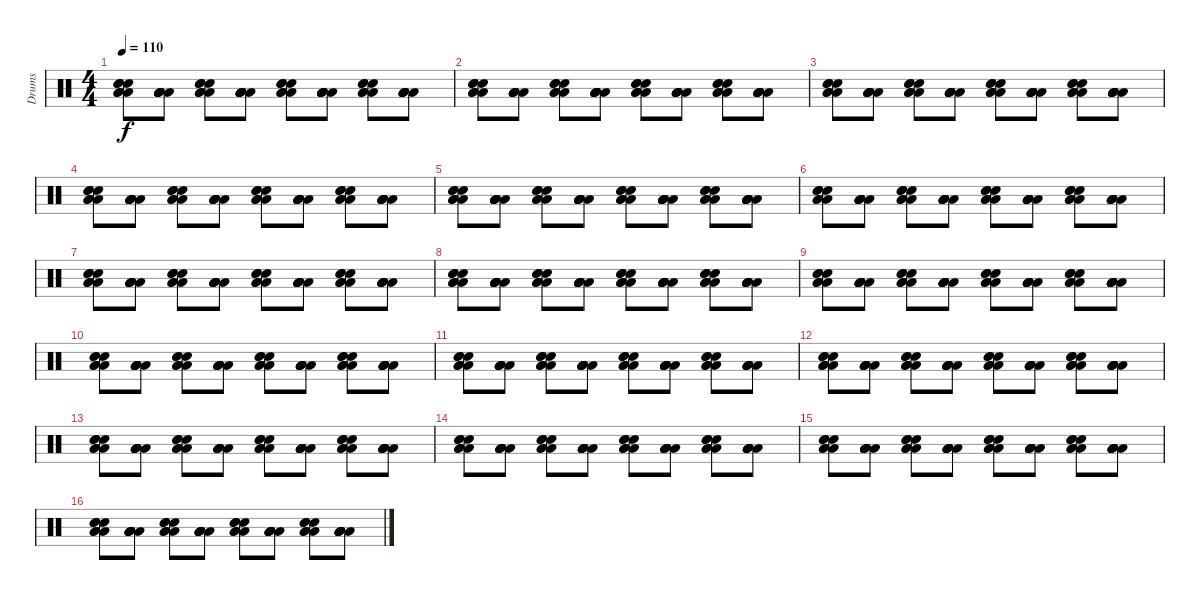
\track ("Drums" "Drums") {instrument percussion}
\staff {score}
\articulation defaults
\ts (4 4)
\tempo 110
\clef neutral
\ks c
("Electric Snare (hit)" "Electric Snare (hit)" "Electric Snare (hit)" "Low Floor Tom (hit)" "Low Floor Tom (hit)" "Low Floor Tom (hit)").8{dy f} ("Low Floor Tom (hit)" "Low Floor Tom (hit)" "Low Floor Tom (hit)" "Low Floor Tom (hit)" "Low Floor Tom (hit)" "Low Floor Tom (hit)").8 ("Electric Snare (hit)" "Electric Snare (hit)" "Electric Snare (hit)" "Low Floor Tom (hit)" "Low Floor Tom (hit)" "Low Floor Tom (hit)").8 ("Low Floor Tom (hit)" "Low Floor Tom (hit)" "Low Floor Tom (hit)" "Low Floor Tom (hit)" "Low Floor Tom (hit)" "Low Floor Tom (hit)").8 ("Electric Snare (hit)" "Electric Snare (hit)" "Electric Snare (hit)" "Low Floor Tom (hit)" "Low Floor Tom (hit)" "Low Floor Tom (hit)").8 ("Low Floor Tom (hit)" "Low Floor Tom (hit)" "Low Floor Tom (hit)" "Low Floor Tom (hit)" "Low Floor Tom (hit)" "Low Floor Tom (hit)").8 ("Electric Snare (hit)" "Electric Snare (hit)" "Electric Snare (hit)" "Low Floor Tom (hit)" "Low Floor Tom (hit)" "Low Floor Tom (hit)").8 ("Low Floor Tom (hit)" "Low Floor Tom (hit)" "Low Floor Tom (hit)" "Low Floor Tom (hit)" "Low Floor Tom (hit)" "Low Floor Tom (hit)").8 |
("Electric Snare (hit)" "Electric Snare (hit)" "Electric Snare (hit)" "Low Floor Tom (hit)" "Low Floor Tom (hit)" "Low Floor Tom (hit)").8 ("Low Floor Tom (hit)" "Low Floor Tom (hit)" "Low Floor Tom (hit)" "Low Floor Tom (hit)" "Low Floor Tom (hit)" "Low Floor Tom (hit)").8 ("Electric Snare (hit)" "Electric Snare (hit)" "Electric Snare (hit)" "Low Floor Tom (hit)" "Low Floor Tom (hit)" "Low Floor Tom (hit)").8 ("Low Floor Tom (hit)" "Low Floor Tom (hit)" "Low Floor Tom (hit)" "Low Floor Tom (hit)" "Low Floor Tom (hit)" "Low Floor Tom (hit)").8 ("Electric Snare (hit)" "Electric Snare (hit)" "Electric Snare (hit)" "Low Floor Tom (hit)" "Low Floor Tom (hit)" "Low Floor Tom (hit)").8 ("Low Floor Tom (hit)" "Low Floor Tom (hit)" "Low Floor Tom (hit)" "Low Floor Tom (hit)" "Low Floor Tom (hit)" "Low Floor Tom (hit)").8 ("Electric Snare (hit)" "Electric Snare (hit)" "Electric Snare (hit)" "Low Floor Tom (hit)" "Low Floor Tom (hit)" "Low Floor Tom (hit)").8 ("Low Floor Tom (hit)" "Low Floor Tom (hit)" "Low Floor Tom (hit)" "Low Floor Tom (hit)" "Low Floor Tom (hit)" "Low Floor Tom (hit)").8 |
("Electric Snare (hit)" "Electric Snare (hit)" "Electric Snare (hit)" "Low Floor Tom (hit)" "Low Floor Tom (hit)" "Low Floor Tom (hit)").8 ("Low Floor Tom (hit)" "Low Floor Tom (hit)" "Low Floor Tom (hit)" "Low Floor Tom (hit)" "Low Floor Tom (hit)" "Low Floor Tom (hit)").8 ("Electric Snare (hit)" "Electric Snare (hit)" "Electric Snare (hit)" "Low Floor Tom (hit)" "Low Floor Tom (hit)" "Low Floor Tom (hit)").8 ("Low Floor Tom (hit)" "Low Floor Tom (hit)" "Low Floor Tom (hit)" "Low Floor Tom (hit)" "Low Floor Tom (hit)" "Low Floor Tom (hit)").8 ("Electric Snare (hit)" "Electric Snare (hit)" "Electric Snare (hit)" "Low Floor Tom (hit)" "Low Floor Tom (hit)" "Low Floor Tom (hit)").8 ("Low Floor Tom (hit)" "Low Floor Tom (hit)" "Low Floor Tom (hit)" "Low Floor Tom (hit)" "Low Floor Tom (hit)" "Low Floor Tom (hit)").8 ("Electric Snare (hit)" "Electric Snare (hit)" "Electric Snare (hit)" "Low Floor Tom (hit)" "Low Floor Tom (hit)" "Low Floor Tom (hit)").8 ("Low Floor Tom (hit)" "Low Floor Tom (hit)" "Low Floor Tom (hit)" "Low Floor Tom (hit)" "Low Floor Tom (hit)" "Low Floor Tom (hit)").8 |
("Electric Snare (hit)" "Electric Snare (hit)" "Electric Snare (hit)" "Low Floor Tom (hit)" "Low Floor Tom (hit)" "Low Floor Tom (hit)").8 ("Low Floor Tom (hit)" "Low Floor Tom (hit)" "Low Floor Tom (hit)" "Low Floor Tom (hit)" "Low Floor Tom (hit)" "Low Floor Tom (hit)").8 ("Electric Snare (hit)" "Electric Snare (hit)" "Electric Snare (hit)" "Low Floor Tom (hit)" "Low Floor Tom (hit)" "Low Floor Tom (hit)").8 ("Low Floor Tom (hit)" "Low Floor Tom (hit)" "Low Floor Tom (hit)" "Low Floor Tom (hit)" "Low Floor Tom (hit)" "Low Floor Tom (hit)").8 ("Electric Snare (hit)" "Electric Snare (hit)" "Electric Snare (hit)" "Low Floor Tom (hit)" "Low Floor Tom (hit)" "Low Floor Tom (hit)").8 ("Low Floor Tom (hit)" "Low Floor Tom (hit)" "Low Floor Tom (hit)" "Low Floor Tom (hit)" "Low Floor Tom (hit)" "Low Floor Tom (hit)").8 ("Electric Snare (hit)" "Electric Snare (hit)" "Electric Snare (hit)" "Low Floor Tom (hit)" "Low Floor Tom (hit)" "Low Floor Tom (hit)").8 ("Low Floor Tom (hit)" "Low Floor Tom (hit)" "Low Floor Tom (hit)" "Low Floor Tom (hit)" "Low Floor Tom (hit)" "Low Floor Tom (hit)").8 |
("Electric Snare (hit)" "Electric Snare (hit)" "Electric Snare (hit)" "Low Floor Tom (hit)" "Low Floor Tom (hit)" "Low Floor Tom (hit)").8 ("Low Floor Tom (hit)" "Low Floor Tom (hit)" "Low Floor Tom (hit)" "Low Floor Tom (hit)" "Low Floor Tom (hit)" "Low Floor Tom (hit)").8 ("Electric Snare (hit)" "Electric Snare (hit)" "Electric Snare (hit)" "Low Floor Tom (hit)" "Low Floor Tom (hit)" "Low Floor Tom (hit)").8 ("Low Floor Tom (hit)" "Low Floor Tom (hit)" "Low Floor Tom (hit)" "Low Floor Tom (hit)" "Low Floor Tom (hit)" "Low Floor Tom (hit)").8 ("Electric Snare (hit)" "Electric Snare (hit)" "Electric Snare (hit)" "Low Floor Tom (hit)" "Low Floor Tom (hit)" "Low Floor Tom (hit)").8 ("Low Floor Tom (hit)" "Low Floor Tom (hit)" "Low Floor Tom (hit)" "Low Floor Tom (hit)" "Low Floor Tom (hit)" "Low Floor Tom (hit)").8 ("Electric Snare (hit)" "Electric Snare (hit)" "Electric Snare (hit)" "Low Floor Tom (hit)" "Low Floor Tom (hit)" "Low Floor Tom (hit)").8 ("Low Floor Tom (hit)" "Low Floor Tom (hit)" "Low Floor Tom (hit)" "Low Floor Tom (hit)" "Low Floor Tom (hit)" "Low Floor Tom (hit)").8 |
("Electric Snare (hit)" "Electric Snare (hit)" "Electric Snare (hit)" "Low Floor Tom (hit)" "Low Floor Tom (hit)" "Low Floor Tom (hit)").8 ("Low Floor Tom (hit)" "Low Floor Tom (hit)" "Low Floor Tom (hit)" "Low Floor Tom (hit)" "Low Floor Tom (hit)" "Low Floor Tom (hit)").8 ("Electric Snare (hit)" "Electric Snare (hit)" "Electric Snare (hit)" "Low Floor Tom (hit)" "Low Floor Tom (hit)" "Low Floor Tom (hit)").8 ("Low Floor Tom (hit)" "Low Floor Tom (hit)" "Low Floor Tom (hit)" "Low Floor Tom (hit)" "Low Floor Tom (hit)" "Low Floor Tom (hit)").8 ("Electric Snare (hit)" "Electric Snare (hit)" "Electric Snare (hit)" "Low Floor Tom (hit)" "Low Floor Tom (hit)" "Low Floor Tom (hit)").8 ("Low Floor Tom (hit)" "Low Floor Tom (hit)" "Low Floor Tom (hit)" "Low Floor Tom (hit)" "Low Floor Tom (hit)" "Low Floor Tom (hit)").8 ("Electric Snare (hit)" "Electric Snare (hit)" "Electric Snare (hit)" "Low Floor Tom (hit)" "Low Floor Tom (hit)" "Low Floor Tom (hit)").8 ("Low Floor Tom (hit)" "Low Floor Tom (hit)" "Low Floor Tom (hit)" "Low Floor Tom (hit)" "Low Floor Tom (hit)" "Low Floor Tom (hit)").8 |
("Electric Snare (hit)" "Electric Snare (hit)" "Electric Snare (hit)" "Low Floor Tom (hit)" "Low Floor Tom (hit)" "Low Floor Tom (hit)").8 ("Low Floor Tom (hit)" "Low Floor Tom (hit)" "Low Floor Tom (hit)" "Low Floor Tom (hit)" "Low Floor Tom (hit)" "Low Floor Tom (hit)").8 ("Electric Snare (hit)" "Electric Snare (hit)" "Electric Snare (hit)" "Low Floor Tom (hit)" "Low Floor Tom (hit)" "Low Floor Tom (hit)").8 ("Low Floor Tom (hit)" "Low Floor Tom (hit)" "Low Floor Tom (hit)" "Low Floor Tom (hit)" "Low Floor Tom (hit)" "Low Floor Tom (hit)").8 ("Electric Snare (hit)" "Electric Snare (hit)" "Electric Snare (hit)" "Low Floor Tom (hit)" "Low Floor Tom (hit)" "Low Floor Tom (hit)").8 ("Low Floor Tom (hit)" "Low Floor Tom (hit)" "Low Floor Tom (hit)" "Low Floor Tom (hit)" "Low Floor Tom (hit)" "Low Floor Tom (hit)").8 ("Electric Snare (hit)" "Electric Snare (hit)" "Electric Snare (hit)" "Low Floor Tom (hit)" "Low Floor Tom (hit)" "Low Floor Tom (hit)").8 ("Low Floor Tom (hit)" "Low Floor Tom (hit)" "Low Floor Tom (hit)" "Low Floor Tom (hit)" "Low Floor Tom (hit)" "Low Floor Tom (hit)").8 |
("Electric Snare (hit)" "Electric Snare (hit)" "Electric Snare (hit)" "Low Floor Tom (hit)" "Low Floor Tom (hit)" "Low Floor Tom (hit)").8 ("Low Floor Tom (hit)" "Low Floor Tom (hit)" "Low Floor Tom (hit)" "Low Floor Tom (hit)" "Low Floor Tom (hit)" "Low Floor Tom (hit)").8 ("Electric Snare (hit)" "Electric Snare (hit)" "Electric Snare (hit)" "Low Floor Tom (hit)" "Low Floor Tom (hit)" "Low Floor Tom (hit)").8 ("Low Floor Tom (hit)" "Low Floor Tom (hit)" "Low Floor Tom (hit)" "Low Floor Tom (hit)" "Low Floor Tom (hit)" "Low Floor Tom (hit)").8 ("Electric Snare (hit)" "Electric Snare (hit)" "Electric Snare (hit)" "Low Floor Tom (hit)" "Low Floor Tom (hit)" "Low Floor Tom (hit)").8 ("Low Floor Tom (hit)" "Low Floor Tom (hit)" "Low Floor Tom (hit)" "Low Floor Tom (hit)" "Low Floor Tom (hit)" "Low Floor Tom (hit)").8 ("Electric Snare (hit)" "Electric Snare (hit)" "Electric Snare (hit)" "Low Floor Tom (hit)" "Low Floor Tom (hit)" "Low Floor Tom (hit)").8 ("Low Floor Tom (hit)" "Low Floor Tom (hit)" "Low Floor Tom (hit)" "Low Floor Tom (hit)" "Low Floor Tom (hit)" "Low Floor Tom (hit)").8 |
("Electric Snare (hit)" "Electric Snare (hit)" "Electric Snare (hit)" "Low Floor Tom (hit)" "Low Floor Tom (hit)" "Low Floor Tom (hit)").8 ("Low Floor Tom (hit)" "Low Floor Tom (hit)" "Low Floor Tom (hit)" "Low Floor Tom (hit)" "Low Floor Tom (hit)" "Low Floor Tom (hit)").8 ("Electric Snare (hit)" "Electric Snare (hit)" "Electric Snare (hit)" "Low Floor Tom (hit)" "Low Floor Tom (hit)" "Low Floor Tom (hit)").8 ("Low Floor Tom (hit)" "Low Floor Tom (hit)" "Low Floor Tom (hit)" "Low Floor Tom (hit)" "Low Floor Tom (hit)" "Low Floor Tom (hit)").8 ("Electric Snare (hit)" "Electric Snare (hit)" "Electric Snare (hit)" "Low Floor Tom (hit)" "Low Floor Tom (hit)" "Low Floor Tom (hit)").8 ("Low Floor Tom (hit)" "Low Floor Tom (hit)" "Low Floor Tom (hit)" "Low Floor Tom (hit)" "Low Floor Tom (hit)" "Low Floor Tom (hit)").8 ("Electric Snare (hit)" "Electric Snare (hit)" "Electric Snare (hit)" "Low Floor Tom (hit)" "Low Floor Tom (hit)" "Low Floor Tom (hit)").8 ("Low Floor Tom (hit)" "Low Floor Tom (hit)" "Low Floor Tom (hit)" "Low Floor Tom (hit)" "Low Floor Tom (hit)" "Low Floor Tom (hit)").8 |
("Electric Snare (hit)" "Electric Snare (hit)" "Electric Snare (hit)" "Low Floor Tom (hit)" "Low Floor Tom (hit)" "Low Floor Tom (hit)").8 ("Low Floor Tom (hit)" "Low Floor Tom (hit)" "Low Floor Tom (hit)" "Low Floor Tom (hit)" "Low Floor Tom (hit)" "Low Floor Tom (hit)").8 ("Electric Snare (hit)" "Electric Snare (hit)" "Electric Snare (hit)" "Low Floor Tom (hit)" "Low Floor Tom (hit)" "Low Floor Tom (hit)").8 ("Low Floor Tom (hit)" "Low Floor Tom (hit)" "Low Floor Tom (hit)" "Low Floor Tom (hit)" "Low Floor Tom (hit)" "Low Floor Tom (hit)").8 ("Electric Snare (hit)" "Electric Snare (hit)" "Electric Snare (hit)" "Low Floor Tom (hit)" "Low Floor Tom (hit)" "Low Floor Tom (hit)").8 ("Low Floor Tom (hit)" "Low Floor Tom (hit)" "Low Floor Tom (hit)" "Low Floor Tom (hit)" "Low Floor Tom (hit)" "Low Floor Tom (hit)").8 ("Electric Snare (hit)" "Electric Snare (hit)" "Electric Snare (hit)" "Low Floor Tom (hit)" "Low Floor Tom (hit)" "Low Floor Tom (hit)").8 ("Low Floor Tom (hit)" "Low Floor Tom (hit)" "Low Floor Tom (hit)" "Low Floor Tom (hit)" "Low Floor Tom (hit)" "Low Floor Tom (hit)").8 |
("Electric Snare (hit)" "Electric Snare (hit)" "Electric Snare (hit)" "Low Floor Tom (hit)" "Low Floor Tom (hit)" "Low Floor Tom (hit)").8 ("Low Floor Tom (hit)" "Low Floor Tom (hit)" "Low Floor Tom (hit)" "Low Floor Tom (hit)" "Low Floor Tom (hit)" "Low Floor Tom (hit)").8 ("Electric Snare (hit)" "Electric Snare (hit)" "Electric Snare (hit)" "Low Floor Tom (hit)" "Low Floor Tom (hit)" "Low Floor Tom (hit)").8 ("Low Floor Tom (hit)" "Low Floor Tom (hit)" "Low Floor Tom (hit)" "Low Floor Tom (hit)" "Low Floor Tom (hit)" "Low Floor Tom (hit)").8 ("Electric Snare (hit)" "Electric Snare (hit)" "Electric Snare (hit)" "Low Floor Tom (hit)" "Low Floor Tom (hit)" "Low Floor Tom (hit)").8 ("Low Floor Tom (hit)" "Low Floor Tom (hit)" "Low Floor Tom (hit)" "Low Floor Tom (hit)" "Low Floor Tom (hit)" "Low Floor Tom (hit)").8 ("Electric Snare (hit)" "Electric Snare (hit)" "Electric Snare (hit)" "Low Floor Tom (hit)" "Low Floor Tom (hit)" "Low Floor Tom (hit)").8 ("Low Floor Tom (hit)" "Low Floor Tom (hit)" "Low Floor Tom (hit)" "Low Floor Tom (hit)" "Low Floor Tom (hit)" "Low Floor Tom (hit)").8 |
("Electric Snare (hit)" "Electric Snare (hit)" "Electric Snare (hit)" "Low Floor Tom (hit)" "Low Floor Tom (hit)" "Low Floor Tom (hit)").8 ("Low Floor Tom (hit)" "Low Floor Tom (hit)" "Low Floor Tom (hit)" "Low Floor Tom (hit)" "Low Floor Tom (hit)" "Low Floor Tom (hit)").8 ("Electric Snare (hit)" "Electric Snare (hit)" "Electric Snare (hit)" "Low Floor Tom (hit)" "Low Floor Tom (hit)" "Low Floor Tom (hit)").8 ("Low Floor Tom (hit)" "Low Floor Tom (hit)" "Low Floor Tom (hit)" "Low Floor Tom (hit)" "Low Floor Tom (hit)" "Low Floor Tom (hit)").8 ("Electric Snare (hit)" "Electric Snare (hit)" "Electric Snare (hit)" "Low Floor Tom (hit)" "Low Floor Tom (hit)" "Low Floor Tom (hit)").8 ("Low Floor Tom (hit)" "Low Floor Tom (hit)" "Low Floor Tom (hit)" "Low Floor Tom (hit)" "Low Floor Tom (hit)" "Low Floor Tom (hit)").8 ("Electric Snare (hit)" "Electric Snare (hit)" "Electric Snare (hit)" "Low Floor Tom (hit)" "Low Floor Tom (hit)" "Low Floor Tom (hit)").8 ("Low Floor Tom (hit)" "Low Floor Tom (hit)" "Low Floor Tom (hit)" "Low Floor Tom (hit)" "Low Floor Tom (hit)" "Low Floor Tom (hit)").8 |
("Electric Snare (hit)" "Electric Snare (hit)" "Electric Snare (hit)" "Low Floor Tom (hit)" "Low Floor Tom (hit)" "Low Floor Tom (hit)").8 ("Low Floor Tom (hit)" "Low Floor Tom (hit)" "Low Floor Tom (hit)" "Low Floor Tom (hit)" "Low Floor Tom (hit)" "Low Floor Tom (hit)").8 ("Electric Snare (hit)" "Electric Snare (hit)" "Electric Snare (hit)" "Low Floor Tom (hit)" "Low Floor Tom (hit)" "Low Floor Tom (hit)").8 ("Low Floor Tom (hit)" "Low Floor Tom (hit)" "Low Floor Tom (hit)" "Low Floor Tom (hit)" "Low Floor Tom (hit)" "Low Floor Tom (hit)").8 ("Electric Snare (hit)" "Electric Snare (hit)" "Electric Snare (hit)" "Low Floor Tom (hit)" "Low Floor Tom (hit)" "Low Floor Tom (hit)").8 ("Low Floor Tom (hit)" "Low Floor Tom (hit)" "Low Floor Tom (hit)" "Low Floor Tom (hit)" "Low Floor Tom (hit)" "Low Floor Tom (hit)").8 ("Electric Snare (hit)" "Electric Snare (hit)" "Electric Snare (hit)" "Low Floor Tom (hit)" "Low Floor Tom (hit)" "Low Floor Tom (hit)").8 ("Low Floor Tom (hit)" "Low Floor Tom (hit)" "Low Floor Tom (hit)" "Low Floor Tom (hit)" "Low Floor Tom (hit)" "Low Floor Tom (hit)").8 |
("Electric Snare (hit)" "Electric Snare (hit)" "Electric Snare (hit)" "Low Floor Tom (hit)" "Low Floor Tom (hit)" "Low Floor Tom (hit)").8 ("Low Floor Tom (hit)" "Low Floor Tom (hit)" "Low Floor Tom (hit)" "Low Floor Tom (hit)" "Low Floor Tom (hit)" "Low Floor Tom (hit)").8 ("Electric Snare (hit)" "Electric Snare (hit)" "Electric Snare (hit)" "Low Floor Tom (hit)" "Low Floor Tom (hit)" "Low Floor Tom (hit)").8 ("Low Floor Tom (hit)" "Low Floor Tom (hit)" "Low Floor Tom (hit)" "Low Floor Tom (hit)" "Low Floor Tom (hit)" "Low Floor Tom (hit)").8 ("Electric Snare (hit)" "Electric Snare (hit)" "Electric Snare (hit)" "Low Floor Tom (hit)" "Low Floor Tom (hit)" "Low Floor Tom (hit)").8 ("Low Floor Tom (hit)" "Low Floor Tom (hit)" "Low Floor Tom (hit)" "Low Floor Tom (hit)" "Low Floor Tom (hit)" "Low Floor Tom (hit)").8 ("Electric Snare (hit)" "Electric Snare (hit)" "Electric Snare (hit)" "Low Floor Tom (hit)" "Low Floor Tom (hit)" "Low Floor Tom (hit)").8 ("Low Floor Tom (hit)" "Low Floor Tom (hit)" "Low Floor Tom (hit)" "Low Floor Tom (hit)" "Low Floor Tom (hit)" "Low Floor Tom (hit)").8 |
("Electric Snare (hit)" "Electric Snare (hit)" "Electric Snare (hit)" "Low Floor Tom (hit)" "Low Floor Tom (hit)" "Low Floor Tom (hit)").8 ("Low Floor Tom (hit)" "Low Floor Tom (hit)" "Low Floor Tom (hit)" "Low Floor Tom (hit)" "Low Floor Tom (hit)" "Low Floor Tom (hit)").8 ("Electric Snare (hit)" "Electric Snare (hit)" "Electric Snare (hit)" "Low Floor Tom (hit)" "Low Floor Tom (hit)" "Low Floor Tom (hit)").8 ("Low Floor Tom (hit)" "Low Floor Tom (hit)" "Low Floor Tom (hit)" "Low Floor Tom (hit)" "Low Floor Tom (hit)" "Low Floor Tom (hit)").8 ("Electric Snare (hit)" "Electric Snare (hit)" "Electric Snare (hit)" "Low Floor Tom (hit)" "Low Floor Tom (hit)" "Low Floor Tom (hit)").8 ("Low Floor Tom (hit)" "Low Floor Tom (hit)" "Low Floor Tom (hit)" "Low Floor Tom (hit)" "Low Floor Tom (hit)" "Low Floor Tom (hit)").8 ("Electric Snare (hit)" "Electric Snare (hit)" "Electric Snare (hit)" "Low Floor Tom (hit)" "Low Floor Tom (hit)" "Low Floor Tom (hit)").8 ("Low Floor Tom (hit)" "Low Floor Tom (hit)" "Low Floor Tom (hit)" "Low Floor Tom (hit)" "Low Floor Tom (hit)" "Low Floor Tom (hit)").8 |
("Electric Snare (hit)" "Electric Snare (hit)" "Electric Snare (hit)" "Low Floor Tom (hit)" "Low Floor Tom (hit)" "Low Floor Tom (hit)").8 ("Low Floor Tom (hit)" "Low Floor Tom (hit)" "Low Floor Tom (hit)" "Low Floor Tom (hit)" "Low Floor Tom (hit)" "Low Floor Tom (hit)").8 ("Electric Snare (hit)" "Electric Snare (hit)" "Electric Snare (hit)" "Low Floor Tom (hit)" "Low Floor Tom (hit)" "Low Floor Tom (hit)").8 ("Low Floor Tom (hit)" "Low Floor Tom (hit)" "Low Floor Tom (hit)" "Low Floor Tom (hit)" "Low Floor Tom (hit)" "Low Floor Tom (hit)").8 ("Electric Snare (hit)" "Electric Snare (hit)" "Electric Snare (hit)" "Low Floor Tom (hit)" "Low Floor Tom (hit)" "Low Floor Tom (hit)").8 ("Low Floor Tom (hit)" "Low Floor Tom (hit)" "Low Floor Tom (hit)" "Low Floor Tom (hit)" "Low Floor Tom (hit)" "Low Floor Tom (hit)").8 ("Electric Snare (hit)" "Electric Snare (hit)" "Electric Snare (hit)" "Low Floor Tom (hit)" "Low Floor Tom (hit)" "Low Floor Tom (hit)").8 ("Low Floor Tom (hit)" "Low Floor Tom (hit)" "Low Floor Tom (hit)" "Low Floor Tom (hit)" "Low Floor Tom (hit)" "Low Floor Tom (hit)").8
